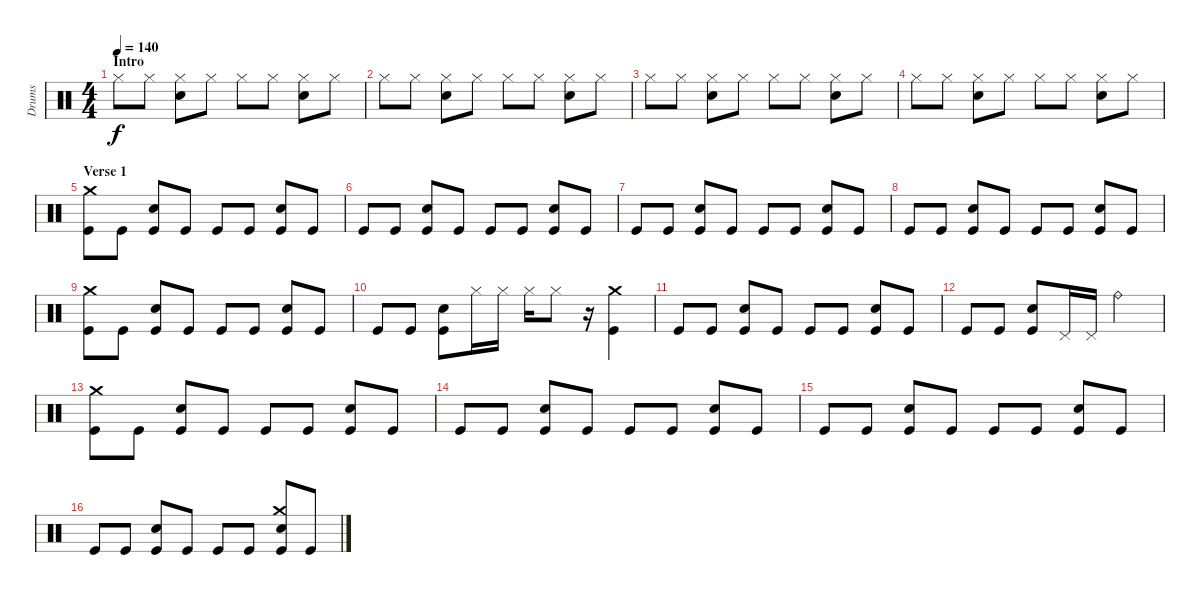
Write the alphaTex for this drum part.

\track ("Drums" "Drums") {instrument percussion}
\staff {score}
\articulation defaults
\ts (4 4)
\section ("" "Intro")
\tempo 140
\clef neutral
\ks c "Hi-Hat (closed)".8{dy f} "Hi-Hat (closed)".8
("Snare (hit) 2" "Hi-Hat (closed)").8 "Hi-Hat (closed)".8 "Hi-Hat (closed)".8 "Hi-Hat (closed)".8 ("Snare (hit) 2" "Hi-Hat (closed)").8 "Hi-Hat (closed)".8 |
"Hi-Hat (closed)".8 "Hi-Hat (closed)".8 ("Snare (hit) 2" "Hi-Hat (closed)").8 "Hi-Hat (closed)".8 "Hi-Hat (closed)".8 "Hi-Hat (closed)".8 ("Snare (hit) 2" "Hi-Hat (closed)").8 "Hi-Hat (closed)".8 |
"Hi-Hat (closed)".8 "Hi-Hat (closed)".8 ("Snare (hit) 2" "Hi-Hat (closed)").8 "Hi-Hat (closed)".8 "Hi-Hat (closed)".8 "Hi-Hat (closed)".8 ("Snare (hit) 2" "Hi-Hat (closed)").8 "Hi-Hat (closed)".8 |
"Hi-Hat (closed)".8 "Hi-Hat (closed)".8 ("Snare (hit) 2" "Hi-Hat (closed)").8 "Hi-Hat (closed)".8 "Hi-Hat (closed)".8 "Hi-Hat (closed)".8 ("Snare (hit) 2" "Hi-Hat (closed)").8 "Hi-Hat (closed)".8 |
\section ("" "Verse 1")
("Crash medium (hit)" "Kick (hit)").8 "Kick (hit)".8 ("Snare (hit) 2" "Kick (hit)").8 "Kick (hit)".8 "Kick (hit)".8 "Kick (hit)".8 ("Snare (hit) 2" "Kick (hit)").8 "Kick (hit)".8 |
"Kick (hit)".8 "Kick (hit)".8 ("Snare (hit) 2" "Kick (hit)").8 "Kick (hit)".8 "Kick (hit)".8 "Kick (hit)".8 ("Snare (hit) 2" "Kick (hit)").8 "Kick (hit)".8 |
"Kick (hit)".8 "Kick (hit)".8 ("Snare (hit) 2" "Kick (hit)").8 "Kick (hit)".8 "Kick (hit)".8 "Kick (hit)".8 ("Snare (hit) 2" "Kick (hit)").8 "Kick (hit)".8 |
"Kick (hit)".8 "Kick (hit)".8 ("Snare (hit) 2" "Kick (hit)").8 "Kick (hit)".8 "Kick (hit)".8 "Kick (hit)".8 ("Snare (hit) 2" "Kick (hit)").8 "Kick (hit)".8 |
("Crash medium (hit)" "Kick (hit)").8 "Kick (hit)".8 ("Snare (hit) 2" "Kick (hit)").8 "Kick (hit)".8 "Kick (hit)".8 "Kick (hit)".8 ("Snare (hit) 2" "Kick (hit)").8 "Kick (hit)".8 |
"Kick (hit)".8 "Kick (hit)".8 ("Snare (hit) 2" "Kick (hit)").8 "Hi-Hat (closed)".16 "Hi-Hat (closed)".16 "Hi-Hat (closed)".16 "Hi-Hat (closed)".8 r.16 ("Crash medium (hit)" "Kick (hit)").4 |
"Kick (hit)".8 "Kick (hit)".8 ("Snare (hit) 2" "Kick (hit)").8 "Kick (hit)".8 "Kick (hit)".8 "Kick (hit)".8 ("Snare (hit) 2" "Kick (hit)").8 "Kick (hit)".8 |
"Kick (hit)".8 "Kick (hit)".8 ("Snare (hit) 2" "Kick (hit)").8 "Pedal Hi-Hat (hit)".16 "Pedal Hi-Hat (hit)".16 "Ride (bell)".2 |
("Crash medium (hit)" "Kick (hit)").8 "Kick (hit)".8 ("Snare (hit) 2" "Kick (hit)").8 "Kick (hit)".8 "Kick (hit)".8 "Kick (hit)".8 ("Snare (hit) 2" "Kick (hit)").8 "Kick (hit)".8 |
"Kick (hit)".8 "Kick (hit)".8 ("Snare (hit) 2" "Kick (hit)").8 "Kick (hit)".8 "Kick (hit)".8 "Kick (hit)".8 ("Snare (hit) 2" "Kick (hit)").8 "Kick (hit)".8 |
"Kick (hit)".8 "Kick (hit)".8 ("Snare (hit) 2" "Kick (hit)").8 "Kick (hit)".8 "Kick (hit)".8 "Kick (hit)".8 ("Snare (hit) 2" "Kick (hit)").8 "Kick (hit)".8 |
"Kick (hit)".8 "Kick (hit)".8 ("Snare (hit) 2" "Kick (hit)").8 "Kick (hit)".8 "Kick (hit)".8 "Kick (hit)".8 ("Crash medium (hit)" "Snare (hit) 2" "Kick (hit)").8 "Kick (hit)".8
